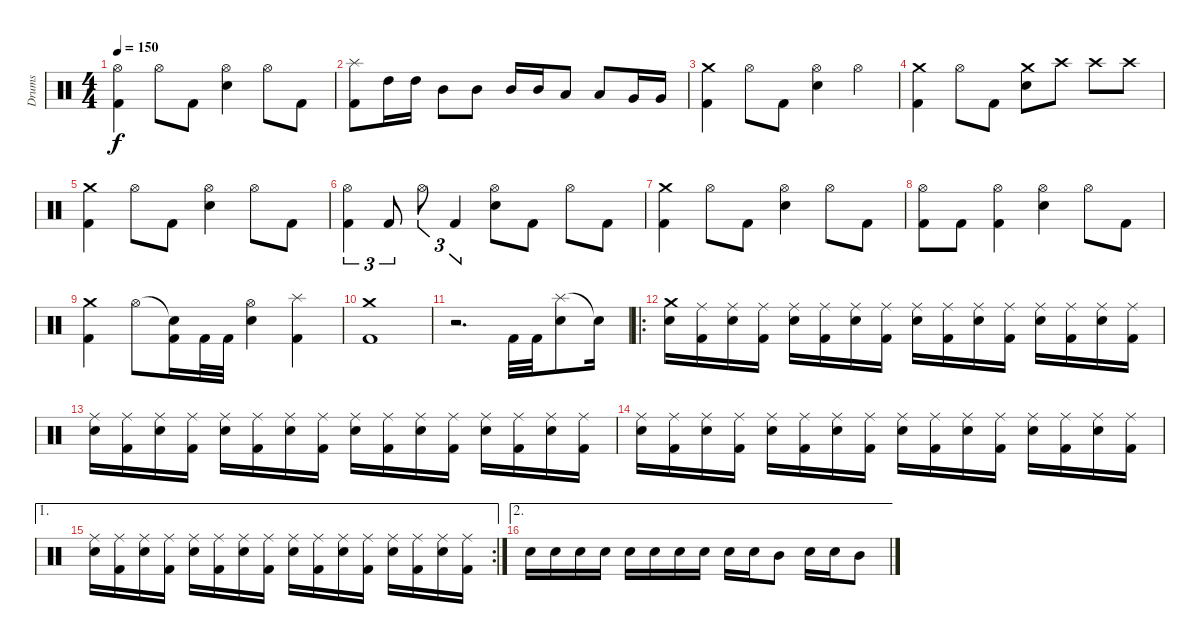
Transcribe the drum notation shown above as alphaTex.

\track ("Drums" "Drums") {instrument percussion}
\staff {score}
\articulation defaults
\ts (4 4)
\tempo 150
\clef neutral
\ks c
("Hi-Hat (open)" "Kick (hit) 2").4{dy f} "Hi-Hat (open)".8 "Kick (hit) 2".8 ("Hi-Hat (open)" "Electric Snare (hit)").4 "Hi-Hat (open)".8 "Kick (hit) 2".8 |
("Splash (hit)" "Kick (hit) 2").8 "High Tom (hit)".16 "High Tom (hit)".16 "Mid Tom (hit)".8 "Mid Tom (hit)".8 "Mid Tom (hit)".16 "Mid Tom (hit)".16 "Low Tom (hit)".8 "Low Tom (hit)".8 "Very Low Tom (hit)".16 "Very Low Tom (hit)".16 |
("Crash medium (hit)" "Kick (hit) 2").4 "Hi-Hat (open)".8 "Kick (hit) 2".8 ("Hi-Hat (open)" "Electric Snare (hit)").4 "Hi-Hat (open)".4 |
("Crash medium (hit)" "Kick (hit) 2").4 "Hi-Hat (open)".8 "Kick (hit) 2".8 ("Crash medium (hit)" "Electric Snare (hit)").8 "Crash high (hit)".8 "Crash high (hit)".8 "Crash high (hit)".8 |
("Crash medium (hit)" "Kick (hit) 2").4 "Hi-Hat (open)".8 "Kick (hit) 2".8 ("Hi-Hat (open)" "Electric Snare (hit)").4 "Hi-Hat (open)".8 "Kick (hit) 2".8 |
("Hi-Hat (open)" "Kick (hit) 2").4{tu (3 2)} "Kick (hit) 2".8{tu (3 2)} "Hi-Hat (open)".8{tu (3 2)} "Kick (hit) 2".4{tu (3 2)} ("Hi-Hat (open)" "Electric Snare (hit)").8 "Kick (hit) 2".8 "Hi-Hat (open)".8 "Kick (hit) 2".8 |
("Crash medium (hit)" "Kick (hit) 2").4 "Hi-Hat (open)".8 "Kick (hit) 2".8 ("Hi-Hat (open)" "Electric Snare (hit)").4 "Hi-Hat (open)".8 "Kick (hit) 2".8 |
("Hi-Hat (open)" "Kick (hit) 2").8 "Kick (hit) 2".8 ("Hi-Hat (open)" "Kick (hit) 2").4 ("Hi-Hat (open)" "Electric Snare (hit)").4 "Hi-Hat (open)".8 "Kick (hit) 2".8 |
("Crash medium (hit)" "Kick (hit) 2").4 "Hi-Hat (open)".8 ("Snare (hit)"{t} "Kick (hit) 2").16 "Kick (hit) 2".32 "Kick (hit) 2".32 ("Hi-Hat (open)" "Electric Snare (hit)").4 ("Splash (hit)" "Kick (hit) 2").4 |
("Crash medium (hit)" "Kick (hit) 2").1 |
r.2{d} "Kick (hit) 2".32 "Kick (hit) 2".32 ("Splash (hit)" "Electric Snare (hit)").8 "Snare (hit)"{t}.16 |
\ro
("Crash medium (hit)" "Electric Snare (hit)").16 ("Ride (middle)" "Kick (hit) 2").16 ("Ride (middle)" "Electric Snare (hit)").16 ("Ride (middle)" "Kick (hit) 2").16 ("Ride (middle)" "Electric Snare (hit)").16 ("Ride (middle)" "Kick (hit) 2").16 ("Ride (middle)" "Electric Snare (hit)").16 ("Ride (middle)" "Kick (hit) 2").16 ("Ride (middle)" "Electric Snare (hit)").16 ("Ride (middle)" "Kick (hit) 2").16 ("Ride (middle)" "Electric Snare (hit)").16 ("Ride (middle)" "Kick (hit) 2").16 ("Ride (middle)" "Electric Snare (hit)").16 ("Ride (middle)" "Kick (hit) 2").16 ("Ride (middle)" "Electric Snare (hit)").16 ("Ride (middle)" "Kick (hit) 2").16 |
("Ride (middle)" "Electric Snare (hit)").16 ("Ride (middle)" "Kick (hit) 2").16 ("Ride (middle)" "Electric Snare (hit)").16 ("Ride (middle)" "Kick (hit) 2").16 ("Ride (middle)" "Electric Snare (hit)").16 ("Ride (middle)" "Kick (hit) 2").16 ("Ride (middle)" "Electric Snare (hit)").16 ("Ride (middle)" "Kick (hit) 2").16 ("Ride (middle)" "Electric Snare (hit)").16 ("Ride (middle)" "Kick (hit) 2").16 ("Ride (middle)" "Electric Snare (hit)").16 ("Ride (middle)" "Kick (hit) 2").16 ("Ride (middle)" "Electric Snare (hit)").16 ("Ride (middle)" "Kick (hit) 2").16 ("Ride (middle)" "Electric Snare (hit)").16 ("Ride (middle)" "Kick (hit) 2").16 |
("Ride (middle)" "Electric Snare (hit)").16 ("Ride (middle)" "Kick (hit) 2").16 ("Ride (middle)" "Electric Snare (hit)").16 ("Ride (middle)" "Kick (hit) 2").16 ("Ride (middle)" "Electric Snare (hit)").16 ("Ride (middle)" "Kick (hit) 2").16 ("Ride (middle)" "Electric Snare (hit)").16 ("Ride (middle)" "Kick (hit) 2").16 ("Ride (middle)" "Electric Snare (hit)").16 ("Ride (middle)" "Kick (hit) 2").16 ("Ride (middle)" "Electric Snare (hit)").16 ("Ride (middle)" "Kick (hit) 2").16 ("Ride (middle)" "Electric Snare (hit)").16 ("Ride (middle)" "Kick (hit) 2").16 ("Ride (middle)" "Electric Snare (hit)").16 ("Ride (middle)" "Kick (hit) 2").16 |
\ae 1
\rc 2
("Ride (middle)" "Electric Snare (hit)").16 ("Ride (middle)" "Kick (hit) 2").16 ("Ride (middle)" "Electric Snare (hit)").16 ("Ride (middle)" "Kick (hit) 2").16 ("Ride (middle)" "Electric Snare (hit)").16 ("Ride (middle)" "Kick (hit) 2").16 ("Ride (middle)" "Electric Snare (hit)").16 ("Ride (middle)" "Kick (hit) 2").16 ("Ride (middle)" "Electric Snare (hit)").16 ("Ride (middle)" "Kick (hit) 2").16 ("Ride (middle)" "Electric Snare (hit)").16 ("Ride (middle)" "Kick (hit) 2").16 ("Ride (middle)" "Electric Snare (hit)").16 ("Ride (middle)" "Kick (hit) 2").16 ("Ride (middle)" "Electric Snare (hit)").16 ("Ride (middle)" "Kick (hit) 2").16 |
\ae 2 "Electric Snare (hit)".16 "Electric Snare (hit)".16 "Electric Snare (hit)".16 "Electric Snare (hit)".16 "Electric Snare (hit)".16 "Electric Snare (hit)".16 "Electric Snare (hit)".16 "Electric Snare (hit)".16 "Electric Snare (hit)".16 "Electric Snare (hit)".16 "Mid Tom (hit)".8 "Electric Snare (hit)".16 "Electric Snare (hit)".16 "Mid Tom (hit)".8
